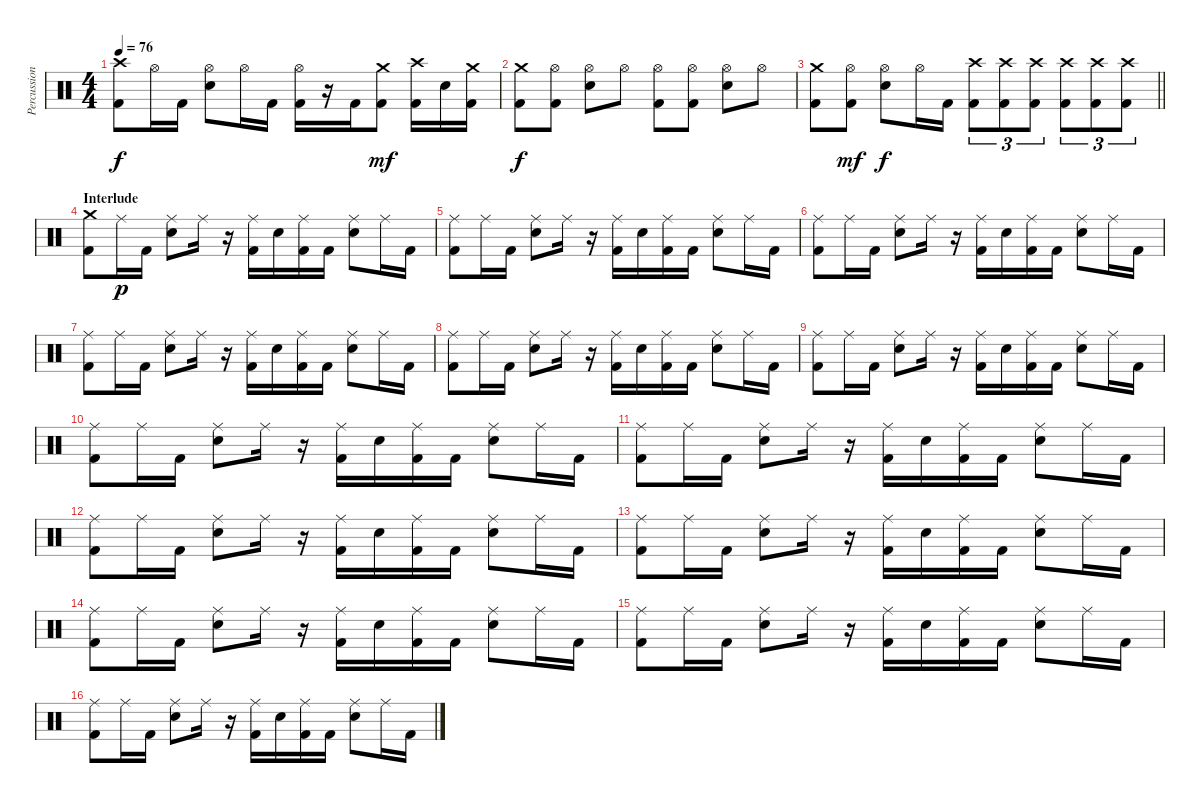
\track ("Percussions" "Percussion") {instrument percussion}
\staff {score}
\articulation defaults
\ts (4 4)
\tempo 76
\clef neutral
\ks c
("Crash high (hit)" "Kick (hit) 2").8{dy f} "Hi-Hat (open)".16 "Kick (hit) 2".16 ("Hi-Hat (open)" "Electric Snare (hit)").8 "Hi-Hat (open)".16 "Kick (hit) 2".16 ("Hi-Hat (open)" "Kick (hit) 2").16 r.16 "Kick (hit) 2".16 ("Crash medium (hit)" "Kick (hit) 2").8{dy mf} ("Crash high (hit)" "Kick (hit) 2").16 "Electric Snare (hit)".16 ("Crash medium (hit)" "Kick (hit) 2").16 |
("Crash medium (hit)" "Kick (hit) 2").8{dy f} ("Hi-Hat (open)" "Kick (hit) 2").8 ("Hi-Hat (open)" "Electric Snare (hit)").8 "Hi-Hat (open)".8 ("Hi-Hat (open)" "Kick (hit) 2").8 ("Hi-Hat (open)" "Kick (hit) 2").8 ("Hi-Hat (open)" "Electric Snare (hit)").8 "Hi-Hat (open)".8 |
\barLineRight lightlight
("Crash medium (hit)" "Kick (hit) 2").8 ("Hi-Hat (open)" "Kick (hit) 2").8{dy mf} ("Hi-Hat (open)" "Electric Snare (hit)").8{dy f} "Hi-Hat (open)".16 "Kick (hit) 2".16 ("Crash high (hit)" "Kick (hit) 2").8{tu (3 2)} ("Crash high (hit)" "Kick (hit) 2").8{tu (3 2)} ("Crash high (hit)" "Kick (hit) 2").8{tu (3 2)} ("Crash high (hit)" "Kick (hit) 2").8{tu (3 2)} ("Crash high (hit)" "Kick (hit) 2").8{tu (3 2)} ("Crash high (hit)" "Kick (hit) 2").8{tu (3 2)} |
\section ("" "Interlude")
("Crash medium (hit)" "Kick (hit) 2").8 "Ride (middle)".16{dy p} "Kick (hit) 2".16 ("Ride (middle)" "Electric Snare (hit)").8 "Ride (middle)".16 r.16 ("Ride (middle)" "Kick (hit) 2").16 "Electric Snare (hit)".16 ("Ride (middle)" "Kick (hit) 2").16 "Kick (hit) 2".16 ("Ride (middle)" "Electric Snare (hit)").8 "Ride (middle)".16 "Kick (hit) 2".16 |
("Ride (middle)" "Kick (hit) 2").8 "Ride (middle)".16 "Kick (hit) 2".16 ("Ride (middle)" "Electric Snare (hit)").8 "Ride (middle)".16 r.16 ("Ride (middle)" "Kick (hit) 2").16 "Electric Snare (hit)".16 ("Ride (middle)" "Kick (hit) 2").16 "Kick (hit) 2".16 ("Ride (middle)" "Electric Snare (hit)").8 "Ride (middle)".16 "Kick (hit) 2".16 |
("Ride (middle)" "Kick (hit) 2").8 "Ride (middle)".16 "Kick (hit) 2".16 ("Ride (middle)" "Electric Snare (hit)").8 "Ride (middle)".16 r.16 ("Ride (middle)" "Kick (hit) 2").16 "Electric Snare (hit)".16 ("Ride (middle)" "Kick (hit) 2").16 "Kick (hit) 2".16 ("Ride (middle)" "Electric Snare (hit)").8 "Ride (middle)".16 "Kick (hit) 2".16 |
("Ride (middle)" "Kick (hit) 2").8 "Ride (middle)".16 "Kick (hit) 2".16 ("Ride (middle)" "Electric Snare (hit)").8 "Ride (middle)".16 r.16 ("Ride (middle)" "Kick (hit) 2").16 "Electric Snare (hit)".16 ("Ride (middle)" "Kick (hit) 2").16 "Kick (hit) 2".16 ("Ride (middle)" "Electric Snare (hit)").8 "Ride (middle)".16 "Kick (hit) 2".16 |
("Ride (middle)" "Kick (hit) 2").8 "Ride (middle)".16 "Kick (hit) 2".16 ("Ride (middle)" "Electric Snare (hit)").8 "Ride (middle)".16 r.16 ("Ride (middle)" "Kick (hit) 2").16 "Electric Snare (hit)".16 ("Ride (middle)" "Kick (hit) 2").16 "Kick (hit) 2".16 ("Ride (middle)" "Electric Snare (hit)").8 "Ride (middle)".16 "Kick (hit) 2".16 |
("Ride (middle)" "Kick (hit) 2").8 "Ride (middle)".16 "Kick (hit) 2".16 ("Ride (middle)" "Electric Snare (hit)").8 "Ride (middle)".16 r.16 ("Ride (middle)" "Kick (hit) 2").16 "Electric Snare (hit)".16 ("Ride (middle)" "Kick (hit) 2").16 "Kick (hit) 2".16 ("Ride (middle)" "Electric Snare (hit)").8 "Ride (middle)".16 "Kick (hit) 2".16 |
("Ride (middle)" "Kick (hit) 2").8 "Ride (middle)".16 "Kick (hit) 2".16 ("Ride (middle)" "Electric Snare (hit)").8 "Ride (middle)".16 r.16 ("Ride (middle)" "Kick (hit) 2").16 "Electric Snare (hit)".16 ("Ride (middle)" "Kick (hit) 2").16 "Kick (hit) 2".16 ("Ride (middle)" "Electric Snare (hit)").8 "Ride (middle)".16 "Kick (hit) 2".16 |
("Ride (middle)" "Kick (hit) 2").8 "Ride (middle)".16 "Kick (hit) 2".16 ("Ride (middle)" "Electric Snare (hit)").8 "Ride (middle)".16 r.16 ("Ride (middle)" "Kick (hit) 2").16 "Electric Snare (hit)".16 ("Ride (middle)" "Kick (hit) 2").16 "Kick (hit) 2".16 ("Ride (middle)" "Electric Snare (hit)").8 "Ride (middle)".16 "Kick (hit) 2".16 |
("Ride (middle)" "Kick (hit) 2").8 "Ride (middle)".16 "Kick (hit) 2".16 ("Ride (middle)" "Electric Snare (hit)").8 "Ride (middle)".16 r.16 ("Ride (middle)" "Kick (hit) 2").16 "Electric Snare (hit)".16 ("Ride (middle)" "Kick (hit) 2").16 "Kick (hit) 2".16 ("Ride (middle)" "Electric Snare (hit)").8 "Ride (middle)".16 "Kick (hit) 2".16 |
("Ride (middle)" "Kick (hit) 2").8 "Ride (middle)".16 "Kick (hit) 2".16 ("Ride (middle)" "Electric Snare (hit)").8 "Ride (middle)".16 r.16 ("Ride (middle)" "Kick (hit) 2").16 "Electric Snare (hit)".16 ("Ride (middle)" "Kick (hit) 2").16 "Kick (hit) 2".16 ("Ride (middle)" "Electric Snare (hit)").8 "Ride (middle)".16 "Kick (hit) 2".16 |
("Ride (middle)" "Kick (hit) 2").8 "Ride (middle)".16 "Kick (hit) 2".16 ("Ride (middle)" "Electric Snare (hit)").8 "Ride (middle)".16 r.16 ("Ride (middle)" "Kick (hit) 2").16 "Electric Snare (hit)".16 ("Ride (middle)" "Kick (hit) 2").16 "Kick (hit) 2".16 ("Ride (middle)" "Electric Snare (hit)").8 "Ride (middle)".16 "Kick (hit) 2".16 |
("Ride (middle)" "Kick (hit) 2").8 "Ride (middle)".16 "Kick (hit) 2".16 ("Ride (middle)" "Electric Snare (hit)").8 "Ride (middle)".16 r.16 ("Ride (middle)" "Kick (hit) 2").16 "Electric Snare (hit)".16 ("Ride (middle)" "Kick (hit) 2").16 "Kick (hit) 2".16 ("Ride (middle)" "Electric Snare (hit)").8 "Ride (middle)".16 "Kick (hit) 2".16 |
("Ride (middle)" "Kick (hit) 2").8 "Ride (middle)".16 "Kick (hit) 2".16 ("Ride (middle)" "Electric Snare (hit)").8 "Ride (middle)".16 r.16 ("Ride (middle)" "Kick (hit) 2").16 "Electric Snare (hit)".16 ("Ride (middle)" "Kick (hit) 2").16 "Kick (hit) 2".16 ("Ride (middle)" "Electric Snare (hit)").8 "Ride (middle)".16 "Kick (hit) 2".16
